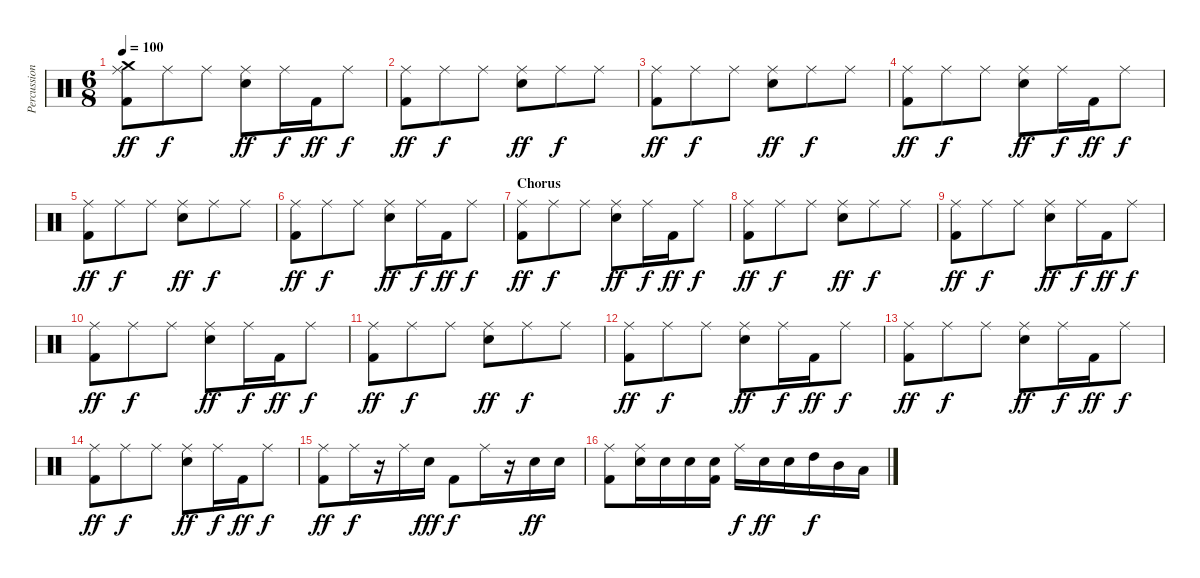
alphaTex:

\track ("Percussion" "Percussion") {instrument percussion}
\staff {score}
\articulation defaults
\ts (6 8)
\tempo 100
\clef neutral
\ks c
("Crash medium (hit)" "Ride (middle)" "Kick (hit) 2").8{dy ff} "Ride (middle)".8{dy f} "Ride (middle)".8 ("Ride (middle)" "Electric Snare (hit)").8{dy ff} "Ride (middle)".16{dy f} "Kick (hit) 2".16{dy ff} "Ride (middle)".8{dy f} |
("Ride (middle)" "Kick (hit) 2").8{dy ff} "Ride (middle)".8{dy f} "Ride (middle)".8 ("Ride (middle)" "Electric Snare (hit)").8{dy ff} "Ride (middle)".8{dy f} "Ride (middle)".8 |
("Kick (hit) 2" "Ride (middle)").8{dy ff} "Ride (middle)".8{dy f} "Ride (middle)".8 ("Electric Snare (hit)" "Ride (middle)").8{dy ff} "Ride (middle)".8{dy f} "Ride (middle)".8 |
("Kick (hit) 2" "Ride (middle)").8{dy ff} "Ride (middle)".8{dy f} "Ride (middle)".8 ("Electric Snare (hit)" "Ride (middle)").8{dy ff} "Ride (middle)".16{dy f} "Kick (hit) 2".16{dy ff} "Ride (middle)".8{dy f} |
("Kick (hit) 2" "Ride (middle)").8{dy ff} "Ride (middle)".8{dy f} "Ride (middle)".8 ("Electric Snare (hit)" "Ride (middle)").8{dy ff} "Ride (middle)".8{dy f} "Ride (middle)".8 |
("Ride (middle)" "Kick (hit) 2").8{dy ff} "Ride (middle)".8{dy f} "Ride (middle)".8 ("Ride (middle)" "Electric Snare (hit)").8{dy ff} "Ride (middle)".16{dy f} "Kick (hit) 2".16{dy ff} "Ride (middle)".8{dy f} |
\section ("" "Chorus")
("Kick (hit) 2" "Ride (middle)").8{dy ff} "Ride (middle)".8{dy f} "Ride (middle)".8 ("Electric Snare (hit)" "Ride (middle)").8{dy ff} "Ride (middle)".16{dy f} "Kick (hit) 2".16{dy ff} "Ride (middle)".8{dy f} |
("Kick (hit) 2" "Ride (middle)").8{dy ff} "Ride (middle)".8{dy f} "Ride (middle)".8 ("Electric Snare (hit)" "Ride (middle)").8{dy ff} "Ride (middle)".8{dy f} "Ride (middle)".8 |
("Ride (middle)" "Kick (hit) 2").8{dy ff} "Ride (middle)".8{dy f} "Ride (middle)".8 ("Ride (middle)" "Electric Snare (hit)").8{dy ff} "Ride (middle)".16{dy f} "Kick (hit) 2".16{dy ff} "Ride (middle)".8{dy f} |
("Ride (middle)" "Kick (hit) 2").8{dy ff} "Ride (middle)".8{dy f} "Ride (middle)".8 ("Ride (middle)" "Electric Snare (hit)").8{dy ff} "Ride (middle)".16{dy f} "Kick (hit) 2".16{dy ff} "Ride (middle)".8{dy f} |
("Kick (hit) 2" "Ride (middle)").8{dy ff} "Ride (middle)".8{dy f} "Ride (middle)".8 ("Electric Snare (hit)" "Ride (middle)").8{dy ff} "Ride (middle)".8{dy f} "Ride (middle)".8 |
("Ride (middle)" "Kick (hit) 2").8{dy ff} "Ride (middle)".8{dy f} "Ride (middle)".8 ("Ride (middle)" "Electric Snare (hit)").8{dy ff} "Ride (middle)".16{dy f} "Kick (hit) 2".16{dy ff} "Ride (middle)".8{dy f} |
("Kick (hit) 2" "Ride (middle)").8{dy ff} "Ride (middle)".8{dy f} "Ride (middle)".8 ("Electric Snare (hit)" "Ride (middle)").8{dy ff} "Ride (middle)".16{dy f} "Kick (hit) 2".16{dy ff} "Ride (middle)".8{dy f} |
("Ride (middle)" "Kick (hit) 2").8{dy ff} "Ride (middle)".8{dy f} "Ride (middle)".8 ("Ride (middle)" "Electric Snare (hit)").8{dy ff} "Ride (middle)".16{dy f} "Kick (hit) 2".16{dy ff} "Ride (middle)".8{dy f} |
("Ride (middle)" "Kick (hit) 2").8{dy ff} "Ride (middle)".16{dy f} r.16 "Ride (middle)".16 "Electric Snare (hit)".16{dy fff} "Kick (hit) 2".8{dy f} "Ride (middle)".16 r.16 "Electric Snare (hit)".16{dy ff} "Electric Snare (hit)".16 |
("Ride (middle)" "Kick (hit) 2").8 ("Ride (middle)" "Electric Snare (hit)").16 "Electric Snare (hit)".16 "Electric Snare (hit)".16 ("Kick (hit) 2" "Electric Snare (hit)").16 "Ride (middle)".16{dy f} "Electric Snare (hit)".16{dy ff} "Electric Snare (hit)".16 "High Tom (hit)".16{dy f} "Mid Tom (hit)".16 "Low Tom (hit)".16
